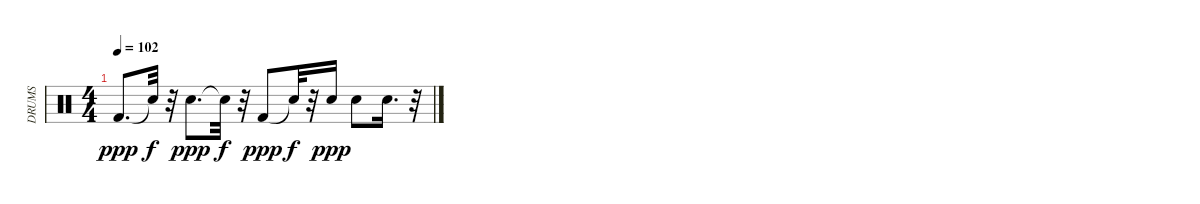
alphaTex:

\track ("DRUMS" "DRUMS") {instrument percussion}
\staff {score}
\articulation defaults
\ts (4 4)
\tempo 102
\clef neutral
\ks c "Kick (hit) 2".8{d dy ppp} "Snare (hit)"{t}.32{dy f}
r.32 "Snare (hit) 2".8{d dy ppp} "Snare (hit)"{t}.32{dy f} r.32 "Kick (hit) 2".8{dy ppp} "Snare (hit)"{t}.32{dy f} r.32 "Snare (hit) 2".16{dy ppp} "Snare (hit) 2".8 "Snare (hit) 2".16{d} r.32
